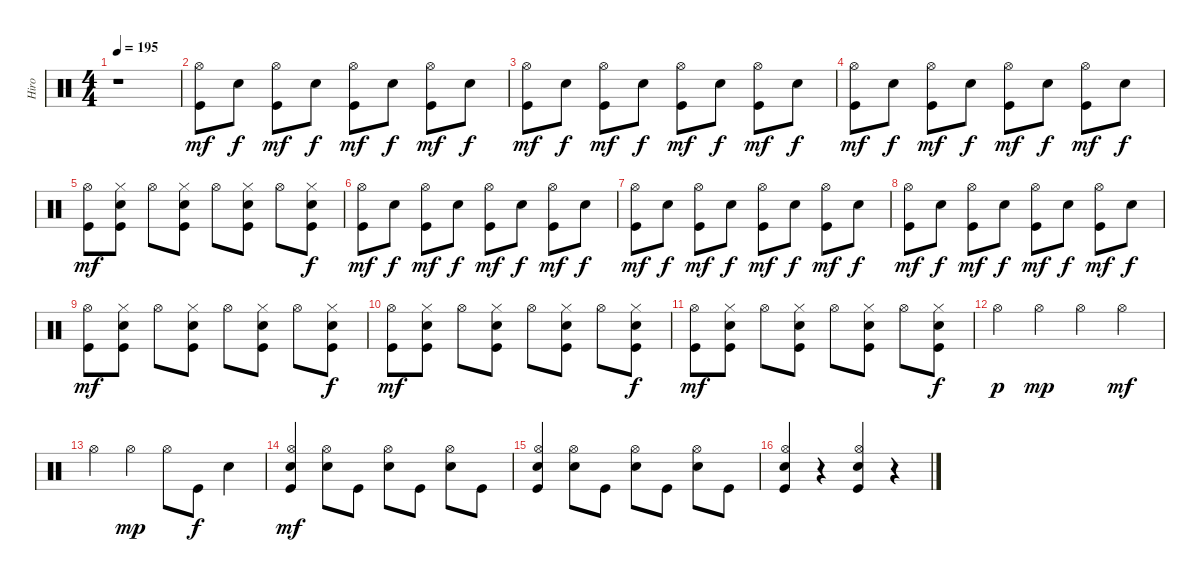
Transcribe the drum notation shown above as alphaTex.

\track ("Hiro" "Hiro") {instrument percussion}
\staff {score}
\articulation defaults
\ts (4 4)
\tempo 195
\clef neutral
\ks c
r.1{dy mf} |
("Kick (hit)" "Hi-Hat (open)").8 "Snare (hit) 2".8{dy f} ("Kick (hit)" "Hi-Hat (open)").8{dy mf} "Snare (hit) 2".8{dy f} ("Kick (hit)" "Hi-Hat (open)").8{dy mf} "Snare (hit) 2".8{dy f} ("Kick (hit)" "Hi-Hat (open)").8{dy mf} "Snare (hit) 2".8{dy f} |
("Kick (hit)" "Hi-Hat (open)").8{dy mf} "Snare (hit) 2".8{dy f} ("Kick (hit)" "Hi-Hat (open)").8{dy mf} "Snare (hit) 2".8{dy f} ("Kick (hit)" "Hi-Hat (open)").8{dy mf} "Snare (hit) 2".8{dy f} ("Kick (hit)" "Hi-Hat (open)").8{dy mf} "Snare (hit) 2".8{dy f} |
("Kick (hit)" "Hi-Hat (open)").8{dy mf} "Snare (hit) 2".8{dy f} ("Kick (hit)" "Hi-Hat (open)").8{dy mf} "Snare (hit) 2".8{dy f} ("Kick (hit)" "Hi-Hat (open)").8{dy mf} "Snare (hit) 2".8{dy f} ("Kick (hit)" "Hi-Hat (open)").8{dy mf} "Snare (hit) 2".8{dy f} |
("Hi-Hat (open)" "Kick (hit)").8{dy mf} ("Hi-Hat (closed)" "Kick (hit)" "Snare (hit) 2").8 "Hi-Hat (open)".8 ("Hi-Hat (closed)" "Kick (hit)" "Snare (hit) 2").8 "Hi-Hat (open)".8 ("Hi-Hat (closed)" "Kick (hit)" "Snare (hit) 2").8 "Hi-Hat (open)".8 ("Hi-Hat (closed)" "Kick (hit)" "Snare (hit) 2").8{dy f} |
("Kick (hit)" "Hi-Hat (open)").8{dy mf} "Snare (hit) 2".8{dy f} ("Kick (hit)" "Hi-Hat (open)").8{dy mf} "Snare (hit) 2".8{dy f} ("Kick (hit)" "Hi-Hat (open)").8{dy mf} "Snare (hit) 2".8{dy f} ("Kick (hit)" "Hi-Hat (open)").8{dy mf} "Snare (hit) 2".8{dy f} |
("Kick (hit)" "Hi-Hat (open)").8{dy mf} "Snare (hit) 2".8{dy f} ("Kick (hit)" "Hi-Hat (open)").8{dy mf} "Snare (hit) 2".8{dy f} ("Kick (hit)" "Hi-Hat (open)").8{dy mf} "Snare (hit) 2".8{dy f} ("Kick (hit)" "Hi-Hat (open)").8{dy mf} "Snare (hit) 2".8{dy f} |
("Kick (hit)" "Hi-Hat (open)").8{dy mf} "Snare (hit) 2".8{dy f} ("Kick (hit)" "Hi-Hat (open)").8{dy mf} "Snare (hit) 2".8{dy f} ("Kick (hit)" "Hi-Hat (open)").8{dy mf} "Snare (hit) 2".8{dy f} ("Kick (hit)" "Hi-Hat (open)").8{dy mf} "Snare (hit) 2".8{dy f} |
("Hi-Hat (open)" "Kick (hit)").8{dy mf} ("Hi-Hat (closed)" "Kick (hit)" "Snare (hit) 2").8 "Hi-Hat (open)".8 ("Hi-Hat (closed)" "Kick (hit)" "Snare (hit) 2").8 "Hi-Hat (open)".8 ("Hi-Hat (closed)" "Kick (hit)" "Snare (hit) 2").8 "Hi-Hat (open)".8 ("Hi-Hat (closed)" "Kick (hit)" "Snare (hit) 2").8{dy f} |
("Hi-Hat (open)" "Kick (hit)").8{dy mf} ("Hi-Hat (closed)" "Kick (hit)" "Snare (hit) 2").8 "Hi-Hat (open)".8 ("Hi-Hat (closed)" "Kick (hit)" "Snare (hit) 2").8 "Hi-Hat (open)".8 ("Hi-Hat (closed)" "Kick (hit)" "Snare (hit) 2").8 "Hi-Hat (open)".8 ("Hi-Hat (closed)" "Kick (hit)" "Snare (hit) 2").8{dy f} |
("Kick (hit)" "Hi-Hat (open)").8{dy mf} ("Snare (hit) 2" "Kick (hit)" "Hi-Hat (closed)").8 "Hi-Hat (open)".8 ("Snare (hit) 2" "Kick (hit)" "Hi-Hat (closed)").8 "Hi-Hat (open)".8 ("Snare (hit) 2" "Kick (hit)" "Hi-Hat (closed)").8 "Hi-Hat (open)".8 ("Snare (hit) 2" "Kick (hit)" "Hi-Hat (closed)").8{dy f} |
"Hi-Hat (open)".4{dy p} "Hi-Hat (open)".4{dy mp} "Hi-Hat (open)".4 "Hi-Hat (open)".4{dy mf} |
"Hi-Hat (open)".4 "Hi-Hat (open)".4{dy mp} "Hi-Hat (open)".8 "Kick (hit)".8{dy f} "Snare (hit) 2".4 |
("Snare (hit) 2" "Kick (hit)" "Hi-Hat (open)").4{dy mf} ("Snare (hit) 2" "Hi-Hat (open)").8 "Kick (hit)".8 ("Snare (hit) 2" "Hi-Hat (open)").8 "Kick (hit)".8 ("Snare (hit) 2" "Hi-Hat (open)").8 "Kick (hit)".8 |
("Hi-Hat (open)" "Kick (hit)" "Snare (hit) 2").4 ("Hi-Hat (open)" "Snare (hit) 2").8 "Kick (hit)".8 ("Hi-Hat (open)" "Snare (hit) 2").8 "Kick (hit)".8 ("Hi-Hat (open)" "Snare (hit) 2").8 "Kick (hit)".8 |
("Hi-Hat (open)" "Kick (hit)" "Snare (hit) 2").4 r.4 ("Hi-Hat (open)" "Kick (hit)" "Snare (hit) 2").4 r.4
